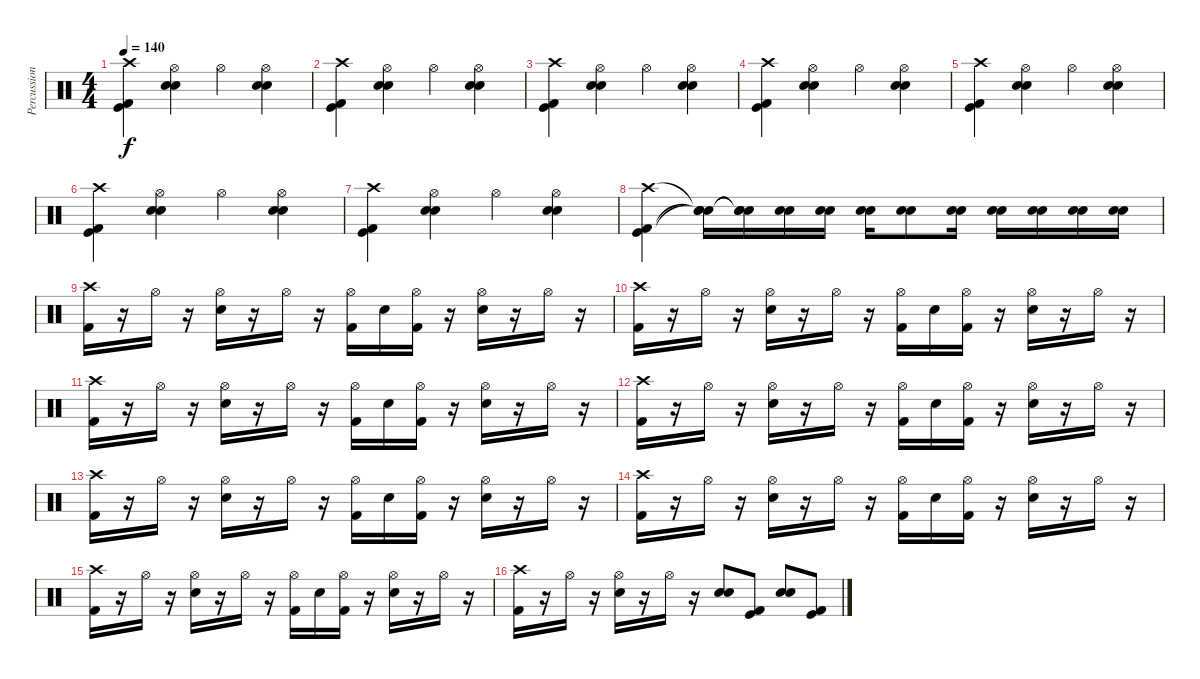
\track ("Percussions" "Percussion") {instrument percussion}
\staff {score}
\articulation defaults
\ts (4 4)
\tempo 140
\clef neutral
\ks c
("Crash high (hit)" "Kick (hit) 2" "Kick (hit)").4{dy f} ("Hi-Hat (open)" "Snare (hit) 2" "Electric Snare (hit)").4 "Hi-Hat (open)".4 ("Hi-Hat (open)" "Snare (hit) 2" "Electric Snare (hit)").4 |
("Crash high (hit)" "Kick (hit) 2" "Kick (hit)").4 ("Hi-Hat (open)" "Snare (hit) 2" "Electric Snare (hit)").4 "Hi-Hat (open)".4 ("Hi-Hat (open)" "Snare (hit) 2" "Electric Snare (hit)").4 |
("Crash high (hit)" "Kick (hit) 2" "Kick (hit)").4 ("Hi-Hat (open)" "Snare (hit) 2" "Electric Snare (hit)").4 "Hi-Hat (open)".4 ("Hi-Hat (open)" "Snare (hit) 2" "Electric Snare (hit)").4 |
("Crash high (hit)" "Kick (hit) 2" "Kick (hit)").4 ("Hi-Hat (open)" "Snare (hit) 2" "Electric Snare (hit)").4 "Hi-Hat (open)".4 ("Hi-Hat (open)" "Snare (hit) 2" "Electric Snare (hit)").4 |
("Crash high (hit)" "Kick (hit) 2" "Kick (hit)").4 ("Hi-Hat (open)" "Snare (hit) 2" "Electric Snare (hit)").4 "Hi-Hat (open)".4 ("Hi-Hat (open)" "Snare (hit) 2" "Electric Snare (hit)").4 |
("Crash high (hit)" "Kick (hit) 2" "Kick (hit)").4 ("Hi-Hat (open)" "Snare (hit) 2" "Electric Snare (hit)").4 "Hi-Hat (open)".4 ("Hi-Hat (open)" "Snare (hit) 2" "Electric Snare (hit)").4 |
("Crash high (hit)" "Kick (hit) 2" "Kick (hit)").4 ("Hi-Hat (open)" "Snare (hit) 2" "Electric Snare (hit)").4 "Hi-Hat (open)".4 ("Hi-Hat (open)" "Snare (hit) 2" "Electric Snare (hit)").4 |
("Crash high (hit)" "Kick (hit) 2" "Kick (hit)").4 ("Snare (hit)"{t} "Electric Snare (hit)"{t} "Snare (hit) 2"{t}).16 ("Snare (hit)"{t} "Electric Snare (hit)"{t} "Snare (hit) 2"{t}).16 ("Electric Snare (hit)" "Snare (hit) 2").16 ("Electric Snare (hit)" "Snare (hit) 2").16 ("Electric Snare (hit)" "Snare (hit) 2").16 ("Electric Snare (hit)" "Snare (hit) 2").8 ("Electric Snare (hit)" "Snare (hit) 2").16 ("Electric Snare (hit)" "Snare (hit) 2").16 ("Electric Snare (hit)" "Snare (hit) 2").16 ("Electric Snare (hit)" "Snare (hit) 2").16 ("Electric Snare (hit)" "Snare (hit) 2").16 |
("Crash high (hit)" "Kick (hit) 2").16 r.16 "Hi-Hat (open)".16 r.16 ("Hi-Hat (open)" "Electric Snare (hit)").16 r.16 "Hi-Hat (open)".16 r.16 ("Hi-Hat (open)" "Kick (hit) 2").16 "Electric Snare (hit)".16 ("Hi-Hat (open)" "Kick (hit) 2").16 r.16 ("Hi-Hat (open)" "Electric Snare (hit)").16 r.16 "Hi-Hat (open)".16 r.16 |
("Crash high (hit)" "Kick (hit) 2").16 r.16 "Hi-Hat (open)".16 r.16 ("Hi-Hat (open)" "Electric Snare (hit)").16 r.16 "Hi-Hat (open)".16 r.16 ("Hi-Hat (open)" "Kick (hit) 2").16 "Electric Snare (hit)".16 ("Hi-Hat (open)" "Kick (hit) 2").16 r.16 ("Hi-Hat (open)" "Electric Snare (hit)").16 r.16 "Hi-Hat (open)".16 r.16 |
("Crash high (hit)" "Kick (hit) 2").16 r.16 "Hi-Hat (open)".16 r.16 ("Hi-Hat (open)" "Electric Snare (hit)").16 r.16 "Hi-Hat (open)".16 r.16 ("Hi-Hat (open)" "Kick (hit) 2").16 "Electric Snare (hit)".16 ("Hi-Hat (open)" "Kick (hit) 2").16 r.16 ("Hi-Hat (open)" "Electric Snare (hit)").16 r.16 "Hi-Hat (open)".16 r.16 |
("Crash high (hit)" "Kick (hit) 2").16 r.16 "Hi-Hat (open)".16 r.16 ("Hi-Hat (open)" "Electric Snare (hit)").16 r.16 "Hi-Hat (open)".16 r.16 ("Hi-Hat (open)" "Kick (hit) 2").16 "Electric Snare (hit)".16 ("Hi-Hat (open)" "Kick (hit) 2").16 r.16 ("Hi-Hat (open)" "Electric Snare (hit)").16 r.16 "Hi-Hat (open)".16 r.16 |
("Crash high (hit)" "Kick (hit) 2").16 r.16 "Hi-Hat (open)".16 r.16 ("Hi-Hat (open)" "Electric Snare (hit)").16 r.16 "Hi-Hat (open)".16 r.16 ("Hi-Hat (open)" "Kick (hit) 2").16 "Electric Snare (hit)".16 ("Hi-Hat (open)" "Kick (hit) 2").16 r.16 ("Hi-Hat (open)" "Electric Snare (hit)").16 r.16 "Hi-Hat (open)".16 r.16 |
("Crash high (hit)" "Kick (hit) 2").16 r.16 "Hi-Hat (open)".16 r.16 ("Hi-Hat (open)" "Electric Snare (hit)").16 r.16 "Hi-Hat (open)".16 r.16 ("Hi-Hat (open)" "Kick (hit) 2").16 "Electric Snare (hit)".16 ("Hi-Hat (open)" "Kick (hit) 2").16 r.16 ("Hi-Hat (open)" "Electric Snare (hit)").16 r.16 "Hi-Hat (open)".16 r.16 |
("Crash high (hit)" "Kick (hit) 2").16 r.16 "Hi-Hat (open)".16 r.16 ("Hi-Hat (open)" "Electric Snare (hit)").16 r.16 "Hi-Hat (open)".16 r.16 ("Hi-Hat (open)" "Kick (hit) 2").16 "Electric Snare (hit)".16 ("Hi-Hat (open)" "Kick (hit) 2").16 r.16 ("Hi-Hat (open)" "Electric Snare (hit)").16 r.16 "Hi-Hat (open)".16 r.16 |
("Crash high (hit)" "Kick (hit) 2").16 r.16 "Hi-Hat (open)".16 r.16 ("Hi-Hat (open)" "Electric Snare (hit)").16 r.16 "Hi-Hat (open)".16 r.16 ("Snare (hit) 2" "Electric Snare (hit)").8 ("Kick (hit)" "Kick (hit) 2").8 ("Snare (hit) 2" "Electric Snare (hit)").8 ("Kick (hit)" "Kick (hit) 2").8
